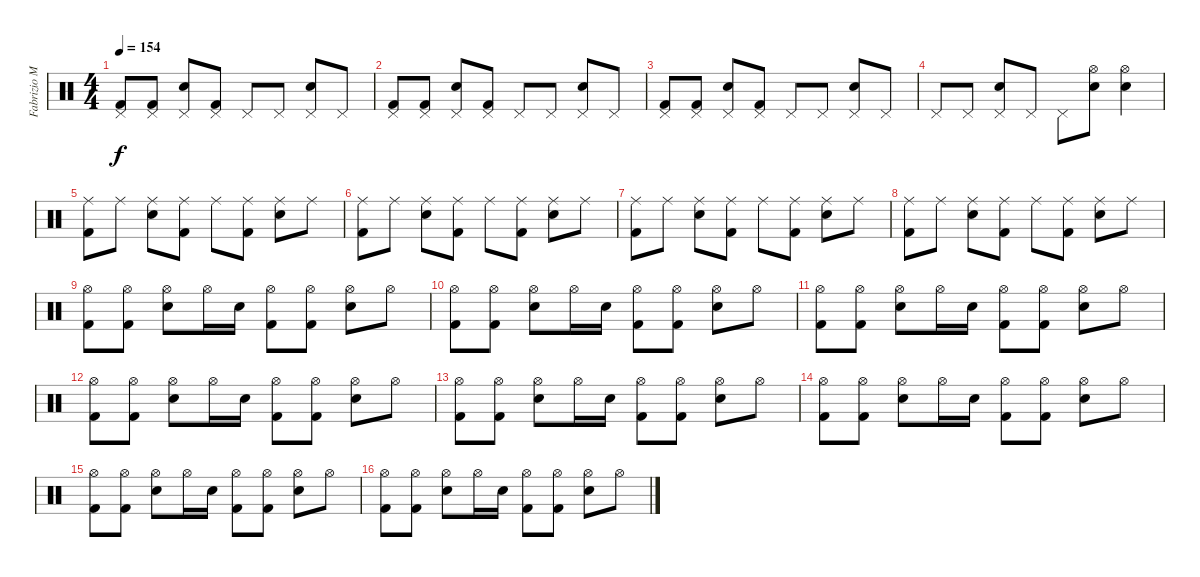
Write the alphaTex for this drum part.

\track ("Fabrizio Moretti" "Fabrizio M") {instrument percussion}
\staff {score}
\articulation defaults
\ts (4 4)
\tempo 154
\clef neutral
\ks c
("Pedal Hi-Hat (hit)" "Kick (hit) 2").8{dy f} ("Pedal Hi-Hat (hit)" "Kick (hit) 2").8 ("Pedal Hi-Hat (hit)" "Electric Snare (hit)").8 ("Pedal Hi-Hat (hit)" "Kick (hit) 2").8 "Pedal Hi-Hat (hit)".8 "Pedal Hi-Hat (hit)".8 ("Pedal Hi-Hat (hit)" "Electric Snare (hit)").8 "Pedal Hi-Hat (hit)".8 |
("Pedal Hi-Hat (hit)" "Kick (hit) 2").8 ("Pedal Hi-Hat (hit)" "Kick (hit) 2").8 ("Pedal Hi-Hat (hit)" "Electric Snare (hit)").8 ("Pedal Hi-Hat (hit)" "Kick (hit) 2").8 "Pedal Hi-Hat (hit)".8 "Pedal Hi-Hat (hit)".8 ("Pedal Hi-Hat (hit)" "Electric Snare (hit)").8 "Pedal Hi-Hat (hit)".8 |
("Pedal Hi-Hat (hit)" "Kick (hit) 2").8 ("Pedal Hi-Hat (hit)" "Kick (hit) 2").8 ("Pedal Hi-Hat (hit)" "Electric Snare (hit)").8 ("Pedal Hi-Hat (hit)" "Kick (hit) 2").8 "Pedal Hi-Hat (hit)".8 "Pedal Hi-Hat (hit)".8 ("Pedal Hi-Hat (hit)" "Electric Snare (hit)").8 "Pedal Hi-Hat (hit)".8 |
"Pedal Hi-Hat (hit)".8 "Pedal Hi-Hat (hit)".8 ("Pedal Hi-Hat (hit)" "Electric Snare (hit)").8 "Pedal Hi-Hat (hit)".8 "Pedal Hi-Hat (hit)".8 ("Hi-Hat (open)" "Electric Snare (hit)").8 ("Hi-Hat (open)" "Electric Snare (hit)").4 |
("Ride (middle)" "Kick (hit) 2").8 "Ride (middle)".8 ("Ride (middle)" "Electric Snare (hit)").8 ("Ride (middle)" "Kick (hit) 2").8 "Ride (middle)".8 ("Ride (middle)" "Kick (hit) 2").8 ("Ride (middle)" "Electric Snare (hit)").8 "Ride (middle)".8 |
("Ride (middle)" "Kick (hit) 2").8 "Ride (middle)".8 ("Ride (middle)" "Electric Snare (hit)").8 ("Ride (middle)" "Kick (hit) 2").8 "Ride (middle)".8 ("Ride (middle)" "Kick (hit) 2").8 ("Ride (middle)" "Electric Snare (hit)").8 "Ride (middle)".8 |
("Ride (middle)" "Kick (hit) 2").8 "Ride (middle)".8 ("Ride (middle)" "Electric Snare (hit)").8 ("Ride (middle)" "Kick (hit) 2").8 "Ride (middle)".8 ("Ride (middle)" "Kick (hit) 2").8 ("Ride (middle)" "Electric Snare (hit)").8 "Ride (middle)".8 |
("Ride (middle)" "Kick (hit) 2").8 "Ride (middle)".8 ("Ride (middle)" "Electric Snare (hit)").8 ("Ride (middle)" "Kick (hit) 2").8 "Ride (middle)".8 ("Ride (middle)" "Kick (hit) 2").8 ("Ride (middle)" "Electric Snare (hit)").8 "Ride (middle)".8 |
("Hi-Hat (open)" "Kick (hit) 2").8 ("Hi-Hat (open)" "Kick (hit) 2").8 ("Hi-Hat (open)" "Electric Snare (hit)").8 "Hi-Hat (open)".16 "Electric Snare (hit)".16 ("Hi-Hat (open)" "Kick (hit) 2").8 ("Hi-Hat (open)" "Kick (hit) 2").8 ("Hi-Hat (open)" "Electric Snare (hit)").8 "Hi-Hat (open)".8 |
("Hi-Hat (open)" "Kick (hit) 2").8 ("Hi-Hat (open)" "Kick (hit) 2").8 ("Hi-Hat (open)" "Electric Snare (hit)").8 "Hi-Hat (open)".16 "Electric Snare (hit)".16 ("Hi-Hat (open)" "Kick (hit) 2").8 ("Hi-Hat (open)" "Kick (hit) 2").8 ("Hi-Hat (open)" "Electric Snare (hit)").8 "Hi-Hat (open)".8 |
("Hi-Hat (open)" "Kick (hit) 2").8 ("Hi-Hat (open)" "Kick (hit) 2").8 ("Hi-Hat (open)" "Electric Snare (hit)").8 "Hi-Hat (open)".16 "Electric Snare (hit)".16 ("Hi-Hat (open)" "Kick (hit) 2").8 ("Hi-Hat (open)" "Kick (hit) 2").8 ("Hi-Hat (open)" "Electric Snare (hit)").8 "Hi-Hat (open)".8 |
("Hi-Hat (open)" "Kick (hit) 2").8 ("Hi-Hat (open)" "Kick (hit) 2").8 ("Hi-Hat (open)" "Electric Snare (hit)").8 "Hi-Hat (open)".16 "Electric Snare (hit)".16 ("Hi-Hat (open)" "Kick (hit) 2").8 ("Hi-Hat (open)" "Kick (hit) 2").8 ("Hi-Hat (open)" "Electric Snare (hit)").8 "Hi-Hat (open)".8 |
("Hi-Hat (open)" "Kick (hit) 2").8 ("Hi-Hat (open)" "Kick (hit) 2").8 ("Hi-Hat (open)" "Electric Snare (hit)").8 "Hi-Hat (open)".16 "Electric Snare (hit)".16 ("Hi-Hat (open)" "Kick (hit) 2").8 ("Hi-Hat (open)" "Kick (hit) 2").8 ("Hi-Hat (open)" "Electric Snare (hit)").8 "Hi-Hat (open)".8 |
("Hi-Hat (open)" "Kick (hit) 2").8 ("Hi-Hat (open)" "Kick (hit) 2").8 ("Hi-Hat (open)" "Electric Snare (hit)").8 "Hi-Hat (open)".16 "Electric Snare (hit)".16 ("Hi-Hat (open)" "Kick (hit) 2").8 ("Hi-Hat (open)" "Kick (hit) 2").8 ("Hi-Hat (open)" "Electric Snare (hit)").8 "Hi-Hat (open)".8 |
("Hi-Hat (open)" "Kick (hit) 2").8 ("Hi-Hat (open)" "Kick (hit) 2").8 ("Hi-Hat (open)" "Electric Snare (hit)").8 "Hi-Hat (open)".16 "Electric Snare (hit)".16 ("Hi-Hat (open)" "Kick (hit) 2").8 ("Hi-Hat (open)" "Kick (hit) 2").8 ("Hi-Hat (open)" "Electric Snare (hit)").8 "Hi-Hat (open)".8 |
("Hi-Hat (open)" "Kick (hit) 2").8 ("Hi-Hat (open)" "Kick (hit) 2").8 ("Hi-Hat (open)" "Electric Snare (hit)").8 "Hi-Hat (open)".16 "Electric Snare (hit)".16 ("Hi-Hat (open)" "Kick (hit) 2").8 ("Hi-Hat (open)" "Kick (hit) 2").8 ("Hi-Hat (open)" "Electric Snare (hit)").8 "Hi-Hat (open)".8
